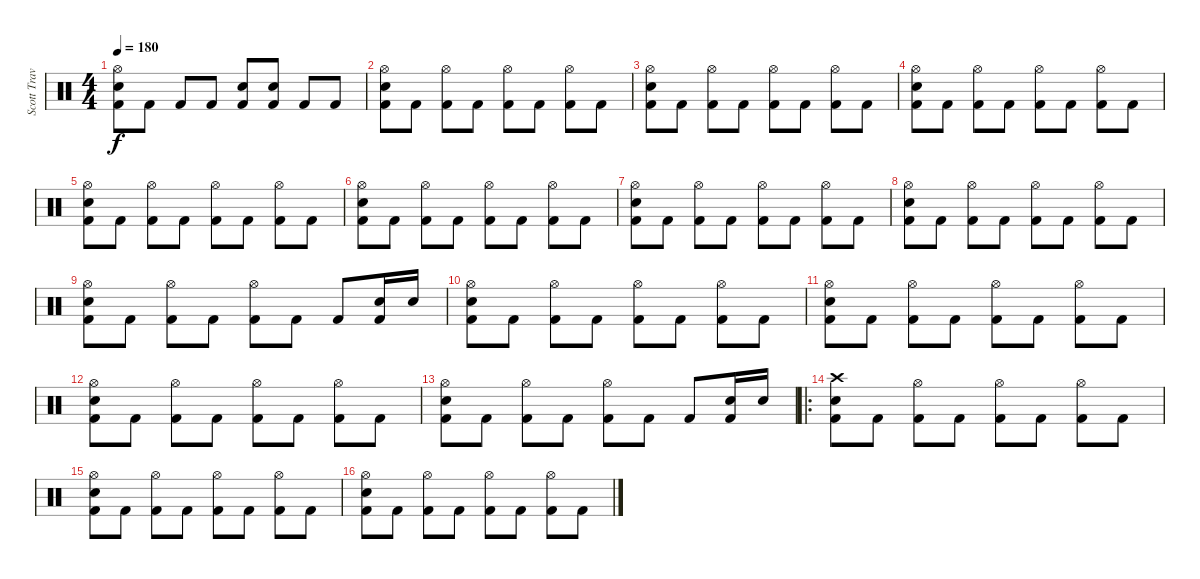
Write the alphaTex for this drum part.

\track ("Scott Travis" "Scott Trav") {instrument percussion}
\staff {score}
\articulation defaults
\ts (4 4)
\tempo 180
\clef neutral
\ks c
("Hi-Hat (open)" "Snare (hit) 2" "Kick (hit) 2").8{dy f} "Kick (hit) 2".8 "Kick (hit) 2".8 "Kick (hit) 2".8 ("Snare (hit) 2" "Kick (hit) 2").8 ("Snare (hit) 2" "Kick (hit) 2").8 "Kick (hit) 2".8 "Kick (hit) 2".8 |
("Hi-Hat (open)" "Snare (hit) 2" "Kick (hit) 2").8 "Kick (hit) 2".8 ("Hi-Hat (open)" "Kick (hit) 2").8 "Kick (hit) 2".8 ("Hi-Hat (open)" "Kick (hit) 2").8 "Kick (hit) 2".8 ("Hi-Hat (open)" "Kick (hit) 2").8 "Kick (hit) 2".8 |
("Hi-Hat (open)" "Snare (hit) 2" "Kick (hit) 2").8 "Kick (hit) 2".8 ("Hi-Hat (open)" "Kick (hit) 2").8 "Kick (hit) 2".8 ("Hi-Hat (open)" "Kick (hit) 2").8 "Kick (hit) 2".8 ("Hi-Hat (open)" "Kick (hit) 2").8 "Kick (hit) 2".8 |
("Hi-Hat (open)" "Snare (hit) 2" "Kick (hit) 2").8 "Kick (hit) 2".8 ("Hi-Hat (open)" "Kick (hit) 2").8 "Kick (hit) 2".8 ("Hi-Hat (open)" "Kick (hit) 2").8 "Kick (hit) 2".8 ("Hi-Hat (open)" "Kick (hit) 2").8 "Kick (hit) 2".8 |
("Hi-Hat (open)" "Snare (hit) 2" "Kick (hit) 2").8 "Kick (hit) 2".8 ("Hi-Hat (open)" "Kick (hit) 2").8 "Kick (hit) 2".8 ("Hi-Hat (open)" "Kick (hit) 2").8 "Kick (hit) 2".8 ("Hi-Hat (open)" "Kick (hit) 2").8 "Kick (hit) 2".8 |
("Hi-Hat (open)" "Snare (hit) 2" "Kick (hit) 2").8 "Kick (hit) 2".8 ("Hi-Hat (open)" "Kick (hit) 2").8 "Kick (hit) 2".8 ("Hi-Hat (open)" "Kick (hit) 2").8 "Kick (hit) 2".8 ("Hi-Hat (open)" "Kick (hit) 2").8 "Kick (hit) 2".8 |
("Hi-Hat (open)" "Snare (hit) 2" "Kick (hit) 2").8 "Kick (hit) 2".8 ("Hi-Hat (open)" "Kick (hit) 2").8 "Kick (hit) 2".8 ("Hi-Hat (open)" "Kick (hit) 2").8 "Kick (hit) 2".8 ("Hi-Hat (open)" "Kick (hit) 2").8 "Kick (hit) 2".8 |
("Hi-Hat (open)" "Snare (hit) 2" "Kick (hit) 2").8 "Kick (hit) 2".8 ("Hi-Hat (open)" "Kick (hit) 2").8 "Kick (hit) 2".8 ("Hi-Hat (open)" "Kick (hit) 2").8 "Kick (hit) 2".8 ("Hi-Hat (open)" "Kick (hit) 2").8 "Kick (hit) 2".8 |
("Hi-Hat (open)" "Snare (hit) 2" "Kick (hit) 2").8 "Kick (hit) 2".8 ("Hi-Hat (open)" "Kick (hit) 2").8 "Kick (hit) 2".8 ("Hi-Hat (open)" "Kick (hit) 2").8 "Kick (hit) 2".8 "Kick (hit) 2".8 ("Snare (hit) 2" "Kick (hit) 2").16 "Snare (hit) 2".16 |
("Hi-Hat (open)" "Snare (hit) 2" "Kick (hit) 2").8 "Kick (hit) 2".8 ("Hi-Hat (open)" "Kick (hit) 2").8 "Kick (hit) 2".8 ("Hi-Hat (open)" "Kick (hit) 2").8 "Kick (hit) 2".8 ("Hi-Hat (open)" "Kick (hit) 2").8 "Kick (hit) 2".8 |
("Hi-Hat (open)" "Snare (hit) 2" "Kick (hit) 2").8 "Kick (hit) 2".8 ("Hi-Hat (open)" "Kick (hit) 2").8 "Kick (hit) 2".8 ("Hi-Hat (open)" "Kick (hit) 2").8 "Kick (hit) 2".8 ("Hi-Hat (open)" "Kick (hit) 2").8 "Kick (hit) 2".8 |
("Hi-Hat (open)" "Snare (hit) 2" "Kick (hit) 2").8 "Kick (hit) 2".8 ("Hi-Hat (open)" "Kick (hit) 2").8 "Kick (hit) 2".8 ("Hi-Hat (open)" "Kick (hit) 2").8 "Kick (hit) 2".8 ("Hi-Hat (open)" "Kick (hit) 2").8 "Kick (hit) 2".8 |
("Hi-Hat (open)" "Snare (hit) 2" "Kick (hit) 2").8 "Kick (hit) 2".8 ("Hi-Hat (open)" "Kick (hit) 2").8 "Kick (hit) 2".8 ("Hi-Hat (open)" "Kick (hit) 2").8 "Kick (hit) 2".8 "Kick (hit) 2".8 ("Snare (hit) 2" "Kick (hit) 2").16 "Snare (hit) 2".16 |
\ro
("Crash high (hit)" "Snare (hit) 2" "Kick (hit) 2").8 "Kick (hit) 2".8 ("Hi-Hat (open)" "Kick (hit) 2").8 "Kick (hit) 2".8 ("Hi-Hat (open)" "Kick (hit) 2").8 "Kick (hit) 2".8 ("Hi-Hat (open)" "Kick (hit) 2").8 "Kick (hit) 2".8 |
("Hi-Hat (open)" "Snare (hit) 2" "Kick (hit) 2").8 "Kick (hit) 2".8 ("Hi-Hat (open)" "Kick (hit) 2").8 "Kick (hit) 2".8 ("Hi-Hat (open)" "Kick (hit) 2").8 "Kick (hit) 2".8 ("Hi-Hat (open)" "Kick (hit) 2").8 "Kick (hit) 2".8 |
("Hi-Hat (open)" "Snare (hit) 2" "Kick (hit) 2").8 "Kick (hit) 2".8 ("Hi-Hat (open)" "Kick (hit) 2").8 "Kick (hit) 2".8 ("Hi-Hat (open)" "Kick (hit) 2").8 "Kick (hit) 2".8 ("Hi-Hat (open)" "Kick (hit) 2").8 "Kick (hit) 2".8
